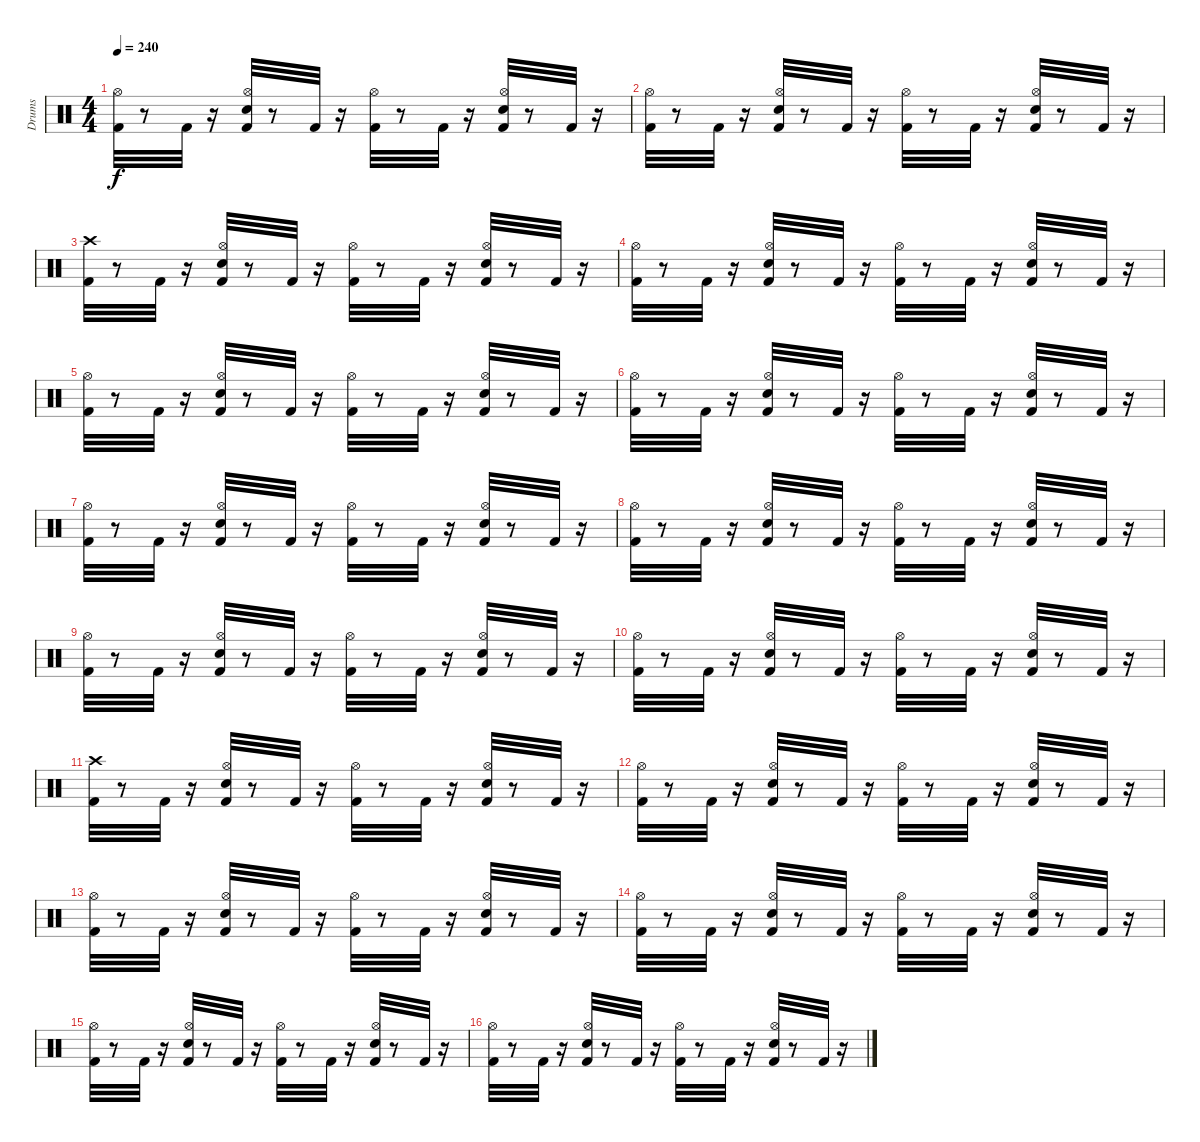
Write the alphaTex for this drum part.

\track ("Drums" "Drums") {instrument percussion}
\staff {score}
\articulation defaults
\ts (4 4)
\tempo 240
\clef neutral
\ks c
("Kick (hit) 2" "Hi-Hat (open)").32{dy f} r.8 "Kick (hit) 2".32 r.16 ("Hi-Hat (open)" "Electric Snare (hit)" "Kick (hit) 2").32 r.8 "Kick (hit) 2".32 r.16 ("Hi-Hat (open)" "Kick (hit) 2").32 r.8 "Kick (hit) 2".32 r.16 ("Hi-Hat (open)" "Electric Snare (hit)" "Kick (hit) 2").32 r.8 "Kick (hit) 2".32 r.16 |
("Hi-Hat (open)" "Kick (hit) 2").32 r.8 "Kick (hit) 2".32 r.16 ("Hi-Hat (open)" "Kick (hit) 2" "Electric Snare (hit)").32 r.8 "Kick (hit) 2".32 r.16 ("Hi-Hat (open)" "Kick (hit) 2").32 r.8 "Kick (hit) 2".32 r.16 ("Hi-Hat (open)" "Kick (hit) 2" "Electric Snare (hit)").32 r.8 "Kick (hit) 2".32 r.16 |
("Kick (hit) 2" "Crash high (hit)").32 r.8 "Kick (hit) 2".32 r.16 ("Kick (hit) 2" "Hi-Hat (open)" "Electric Snare (hit)").32 r.8 "Kick (hit) 2".32 r.16 ("Kick (hit) 2" "Hi-Hat (open)").32 r.8 "Kick (hit) 2".32 r.16 ("Electric Snare (hit)" "Hi-Hat (open)" "Kick (hit) 2").32 r.8 "Kick (hit) 2".32 r.16 |
("Kick (hit) 2" "Hi-Hat (open)").32 r.8 "Kick (hit) 2".32 r.16 ("Hi-Hat (open)" "Kick (hit) 2" "Electric Snare (hit)").32 r.8 "Kick (hit) 2".32 r.16 ("Kick (hit) 2" "Hi-Hat (open)").32 r.8 "Kick (hit) 2".32 r.16 ("Kick (hit) 2" "Hi-Hat (open)" "Electric Snare (hit)").32 r.8 "Kick (hit) 2".32 r.16 |
("Hi-Hat (open)" "Kick (hit) 2").32 r.8 "Kick (hit) 2".32 r.16 ("Kick (hit) 2" "Hi-Hat (open)" "Electric Snare (hit)").32 r.8 "Kick (hit) 2".32 r.16 ("Hi-Hat (open)" "Kick (hit) 2").32 r.8 "Kick (hit) 2".32 r.16 ("Electric Snare (hit)" "Hi-Hat (open)" "Kick (hit) 2").32 r.8 "Kick (hit) 2".32 r.16 |
("Hi-Hat (open)" "Kick (hit) 2").32 r.8 "Kick (hit) 2".32 r.16 ("Kick (hit) 2" "Electric Snare (hit)" "Hi-Hat (open)").32 r.8 "Kick (hit) 2".32 r.16 ("Hi-Hat (open)" "Kick (hit) 2").32 r.8 "Kick (hit) 2".32 r.16 ("Hi-Hat (open)" "Electric Snare (hit)" "Kick (hit) 2").32 r.8 "Kick (hit) 2".32 r.16 |
("Hi-Hat (open)" "Kick (hit) 2").32 r.8 "Kick (hit) 2".32 r.16 ("Kick (hit) 2" "Hi-Hat (open)" "Electric Snare (hit)").32 r.8 "Kick (hit) 2".32 r.16 ("Hi-Hat (open)" "Kick (hit) 2").32 r.8 "Kick (hit) 2".32 r.16 ("Kick (hit) 2" "Hi-Hat (open)" "Electric Snare (hit)").32 r.8 "Kick (hit) 2".32 r.16 |
("Kick (hit) 2" "Hi-Hat (open)").32 r.8 "Kick (hit) 2".32 r.16 ("Electric Snare (hit)" "Hi-Hat (open)" "Kick (hit) 2").32 r.8 "Kick (hit) 2".32 r.16 ("Hi-Hat (open)" "Kick (hit) 2").32 r.8 "Kick (hit) 2".32 r.16 ("Kick (hit) 2" "Electric Snare (hit)" "Hi-Hat (open)").32 r.8 "Kick (hit) 2".32 r.16 |
("Kick (hit) 2" "Hi-Hat (open)").32 r.8 "Kick (hit) 2".32 r.16 ("Kick (hit) 2" "Hi-Hat (open)" "Electric Snare (hit)").32 r.8 "Kick (hit) 2".32 r.16 ("Kick (hit) 2" "Hi-Hat (open)").32 r.8 "Kick (hit) 2".32 r.16 ("Electric Snare (hit)" "Hi-Hat (open)" "Kick (hit) 2").32 r.8 "Kick (hit) 2".32 r.16 |
("Kick (hit) 2" "Hi-Hat (open)").32 r.8 "Kick (hit) 2".32 r.16 ("Electric Snare (hit)" "Hi-Hat (open)" "Kick (hit) 2").32 r.8 "Kick (hit) 2".32 r.16 ("Hi-Hat (open)" "Kick (hit) 2").32 r.8 "Kick (hit) 2".32 r.16 ("Electric Snare (hit)" "Hi-Hat (open)" "Kick (hit) 2").32 r.8 "Kick (hit) 2".32 r.16 |
("Kick (hit) 2" "Crash high (hit)").32 r.8 "Kick (hit) 2".32 r.16 ("Hi-Hat (open)" "Electric Snare (hit)" "Kick (hit) 2").32 r.8 "Kick (hit) 2".32 r.16 ("Kick (hit) 2" "Hi-Hat (open)").32 r.8 "Kick (hit) 2".32 r.16 ("Electric Snare (hit)" "Kick (hit) 2" "Hi-Hat (open)").32 r.8 "Kick (hit) 2".32 r.16 |
("Kick (hit) 2" "Hi-Hat (open)").32 r.8 "Kick (hit) 2".32 r.16 ("Electric Snare (hit)" "Hi-Hat (open)" "Kick (hit) 2").32 r.8 "Kick (hit) 2".32 r.16 ("Kick (hit) 2" "Hi-Hat (open)").32 r.8 "Kick (hit) 2".32 r.16 ("Kick (hit) 2" "Hi-Hat (open)" "Electric Snare (hit)").32 r.8 "Kick (hit) 2".32 r.16 |
("Hi-Hat (open)" "Kick (hit) 2").32 r.8 "Kick (hit) 2".32 r.16 ("Hi-Hat (open)" "Electric Snare (hit)" "Kick (hit) 2").32 r.8 "Kick (hit) 2".32 r.16 ("Hi-Hat (open)" "Kick (hit) 2").32 r.8 "Kick (hit) 2".32 r.16 ("Hi-Hat (open)" "Electric Snare (hit)" "Kick (hit) 2").32 r.8 "Kick (hit) 2".32 r.16 |
("Hi-Hat (open)" "Kick (hit) 2").32 r.8 "Kick (hit) 2".32 r.16 ("Hi-Hat (open)" "Electric Snare (hit)" "Kick (hit) 2").32 r.8 "Kick (hit) 2".32 r.16 ("Hi-Hat (open)" "Kick (hit) 2").32 r.8 "Kick (hit) 2".32 r.16 ("Hi-Hat (open)" "Electric Snare (hit)" "Kick (hit) 2").32 r.8 "Kick (hit) 2".32 r.16 |
("Hi-Hat (open)" "Kick (hit) 2").32 r.8 "Kick (hit) 2".32 r.16 ("Hi-Hat (open)" "Electric Snare (hit)" "Kick (hit) 2").32 r.8 "Kick (hit) 2".32 r.16 ("Hi-Hat (open)" "Kick (hit) 2").32 r.8 "Kick (hit) 2".32 r.16 ("Electric Snare (hit)" "Kick (hit) 2" "Hi-Hat (open)").32 r.8 "Kick (hit) 2".32 r.16 |
("Hi-Hat (open)" "Kick (hit) 2").32 r.8 "Kick (hit) 2".32 r.16 ("Kick (hit) 2" "Hi-Hat (open)" "Electric Snare (hit)").32 r.8 "Kick (hit) 2".32 r.16 ("Hi-Hat (open)" "Kick (hit) 2").32 r.8 "Kick (hit) 2".32 r.16 ("Electric Snare (hit)" "Hi-Hat (open)" "Kick (hit) 2").32 r.8 "Kick (hit) 2".32 r.16
